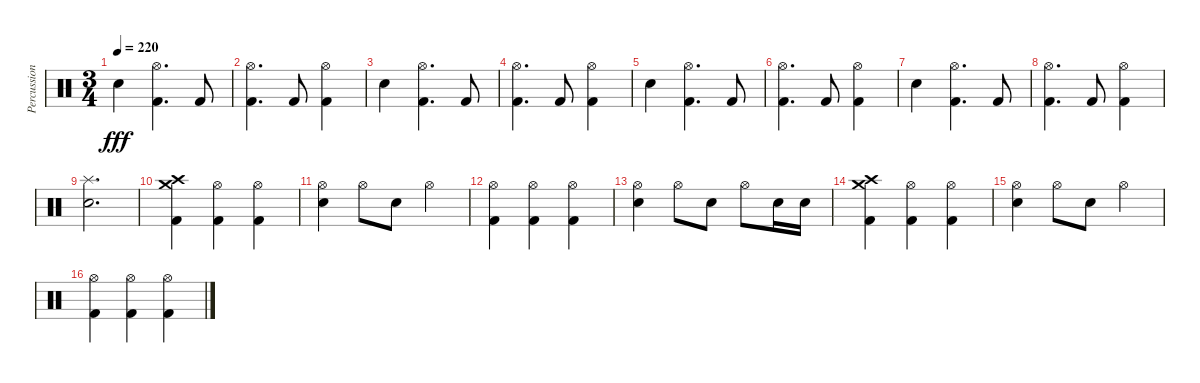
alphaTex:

\track ("Percussions" "Percussion") {instrument percussion}
\staff {score}
\articulation defaults
\ts (3 4)
\tempo 220
\clef neutral
\ks c "Electric Snare (hit)".4{dy fff}
("Hi-Hat (open)" "Kick (hit) 2").4{d} "Kick (hit) 2".8 |
("Hi-Hat (open)" "Kick (hit) 2").4{d} "Kick (hit) 2".8 ("Hi-Hat (open)" "Kick (hit) 2").4 |
"Electric Snare (hit)".4 ("Hi-Hat (open)" "Kick (hit) 2").4{d} "Kick (hit) 2".8 |
("Hi-Hat (open)" "Kick (hit) 2").4{d} "Kick (hit) 2".8 ("Hi-Hat (open)" "Kick (hit) 2").4 |
"Electric Snare (hit)".4 ("Hi-Hat (open)" "Kick (hit) 2").4{d} "Kick (hit) 2".8 |
("Hi-Hat (open)" "Kick (hit) 2").4{d} "Kick (hit) 2".8 ("Hi-Hat (open)" "Kick (hit) 2").4 |
"Electric Snare (hit)".4 ("Hi-Hat (open)" "Kick (hit) 2").4{d} "Kick (hit) 2".8 |
("Hi-Hat (open)" "Kick (hit) 2").4{d} "Kick (hit) 2".8 ("Hi-Hat (open)" "Kick (hit) 2").4 |
("Splash (hit)" "Electric Snare (hit)").2{d} |
("Crash high (hit)" "Crash medium (hit)" "Kick (hit) 2").4 ("Hi-Hat (open)" "Kick (hit) 2").4 ("Hi-Hat (open)" "Kick (hit) 2").4 |
("Hi-Hat (open)" "Electric Snare (hit)").4 "Hi-Hat (open)".8 "Electric Snare (hit)".8 "Hi-Hat (open)".4 |
("Hi-Hat (open)" "Kick (hit) 2").4 ("Hi-Hat (open)" "Kick (hit) 2").4 ("Hi-Hat (open)" "Kick (hit) 2").4 |
("Hi-Hat (open)" "Electric Snare (hit)").4 "Hi-Hat (open)".8 "Electric Snare (hit)".8 "Hi-Hat (open)".8 "Electric Snare (hit)".16 "Electric Snare (hit)".16 |
("Crash high (hit)" "Crash medium (hit)" "Kick (hit) 2").4 ("Hi-Hat (open)" "Kick (hit) 2").4 ("Hi-Hat (open)" "Kick (hit) 2").4 |
("Hi-Hat (open)" "Electric Snare (hit)").4 "Hi-Hat (open)".8 "Electric Snare (hit)".8 "Hi-Hat (open)".4 |
("Hi-Hat (open)" "Kick (hit) 2").4 ("Hi-Hat (open)" "Kick (hit) 2").4 ("Hi-Hat (open)" "Kick (hit) 2").4
